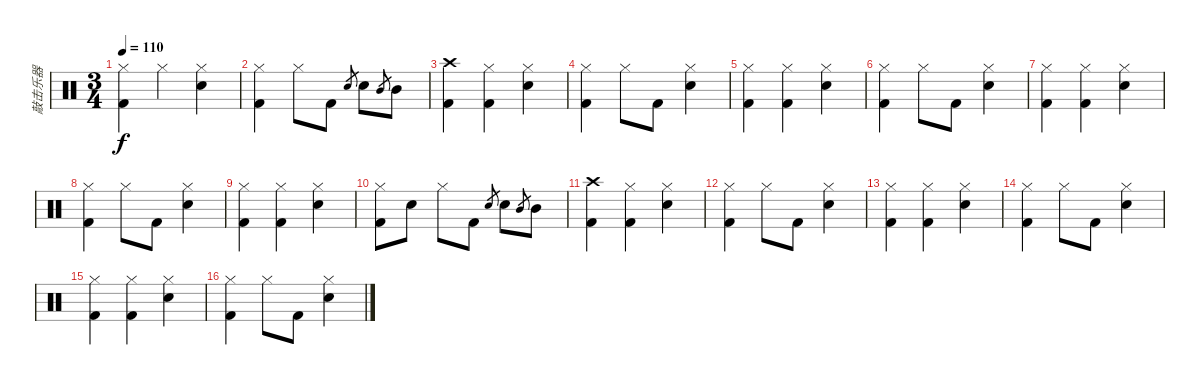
\track ("敲击乐器" "敲击乐器") {instrument percussion}
\staff {score}
\articulation defaults
\ts (3 4)
\tempo 110
\clef neutral
\ks c
("Hi-Hat (closed)" "Kick (hit) 2").4{dy f} "Hi-Hat (closed)".4 ("Hi-Hat (closed)" "Electric Snare (hit)").4 |
("Hi-Hat (closed)" "Kick (hit) 2").4 "Hi-Hat (closed)".8 "Kick (hit) 2".8 "Electric Snare (hit)".8{gr} "Electric Snare (hit)".8 "Mid Tom (hit)".8{gr} "Mid Tom (hit)".8 |
("Crash high (hit)" "Kick (hit) 2").4 ("Hi-Hat (closed)" "Kick (hit) 2").4 ("Hi-Hat (closed)" "Electric Snare (hit)").4 |
("Hi-Hat (closed)" "Kick (hit) 2").4 "Hi-Hat (closed)".8 "Kick (hit) 2".8 ("Hi-Hat (closed)" "Electric Snare (hit)").4 |
("Hi-Hat (closed)" "Kick (hit) 2").4 ("Hi-Hat (closed)" "Kick (hit) 2").4 ("Hi-Hat (closed)" "Electric Snare (hit)").4 |
("Hi-Hat (closed)" "Kick (hit) 2").4 "Hi-Hat (closed)".8 "Kick (hit) 2".8 ("Hi-Hat (closed)" "Electric Snare (hit)").4 |
("Hi-Hat (closed)" "Kick (hit) 2").4 ("Hi-Hat (closed)" "Kick (hit) 2").4 ("Hi-Hat (closed)" "Electric Snare (hit)").4 |
("Hi-Hat (closed)" "Kick (hit) 2").4 "Hi-Hat (closed)".8 "Kick (hit) 2".8 ("Hi-Hat (closed)" "Electric Snare (hit)").4 |
("Hi-Hat (closed)" "Kick (hit) 2").4 ("Hi-Hat (closed)" "Kick (hit) 2").4 ("Hi-Hat (closed)" "Electric Snare (hit)").4 |
("Hi-Hat (closed)" "Kick (hit) 2").8 "Electric Snare (hit)".8 "Hi-Hat (closed)".8 "Kick (hit) 2".8 "Electric Snare (hit)".8{gr} "Electric Snare (hit)".8 "Mid Tom (hit)".8{gr} "Mid Tom (hit)".8 |
("Crash high (hit)" "Kick (hit) 2").4 ("Hi-Hat (closed)" "Kick (hit) 2").4 ("Hi-Hat (closed)" "Electric Snare (hit)").4 |
("Hi-Hat (closed)" "Kick (hit) 2").4 "Hi-Hat (closed)".8 "Kick (hit) 2".8 ("Hi-Hat (closed)" "Electric Snare (hit)").4 |
("Hi-Hat (closed)" "Kick (hit) 2").4 ("Hi-Hat (closed)" "Kick (hit) 2").4 ("Hi-Hat (closed)" "Electric Snare (hit)").4 |
("Hi-Hat (closed)" "Kick (hit) 2").4 "Hi-Hat (closed)".8 "Kick (hit) 2".8 ("Hi-Hat (closed)" "Electric Snare (hit)").4 |
("Hi-Hat (closed)" "Kick (hit) 2").4 ("Hi-Hat (closed)" "Kick (hit) 2").4 ("Hi-Hat (closed)" "Electric Snare (hit)").4 |
("Hi-Hat (closed)" "Kick (hit) 2").4 "Hi-Hat (closed)".8 "Kick (hit) 2".8 ("Hi-Hat (closed)" "Electric Snare (hit)").4
